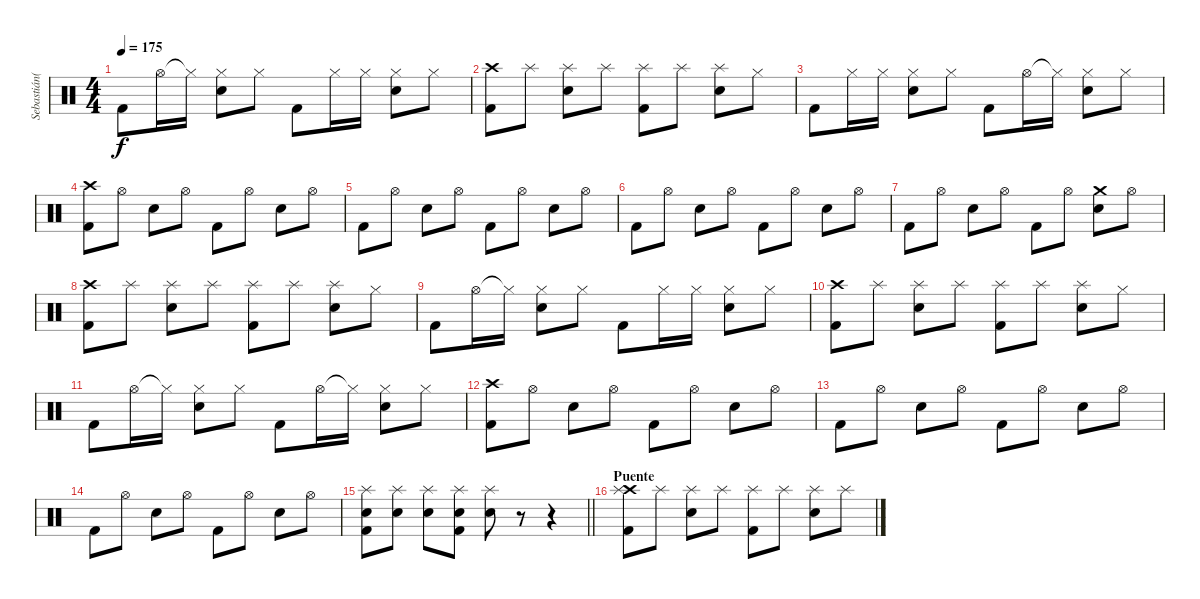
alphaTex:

\track ("Sebastián(Bateria)" "Sebastián(") {instrument percussion}
\staff {score}
\articulation defaults
\ts (4 4)
\tempo 175
\clef neutral
\ks c "Kick (hit) 2".8{dy f} "Hi-Hat (open)".16 "Hi-Hat (closed)"{t}.16
("Hi-Hat (closed)" "Snare (hit) 2").8 "Hi-Hat (closed)".8 "Kick (hit) 2".8 "Hi-Hat (closed)".16 "Hi-Hat (closed)".16 ("Hi-Hat (closed)" "Snare (hit) 2").8 "Hi-Hat (closed)".8 |
("Crash high (hit)" "Kick (hit) 2").8 "Splash (hit)".8 ("Splash (hit)" "Snare (hit) 2").8 "Splash (hit)".8 ("Splash (hit)" "Kick (hit) 2").8 "Splash (hit)".8 ("Splash (hit)" "Snare (hit) 2").8 "Hi-Hat (closed)".8 |
"Kick (hit) 2".8 "Hi-Hat (closed)".16 "Hi-Hat (closed)".16 ("Hi-Hat (closed)" "Snare (hit) 2").8 "Hi-Hat (closed)".8 "Kick (hit) 2".8 "Hi-Hat (open)".16 "Hi-Hat (closed)"{t}.16 ("Hi-Hat (closed)" "Snare (hit) 2").8 "Hi-Hat (closed)".8 |
("Crash high (hit)" "Kick (hit) 2").8 "Hi-Hat (open)".8 "Snare (hit) 2".8 "Hi-Hat (open)".8 "Kick (hit) 2".8 "Hi-Hat (open)".8 "Snare (hit) 2".8 "Hi-Hat (open)".8 |
"Kick (hit) 2".8 "Hi-Hat (open)".8 "Snare (hit) 2".8 "Hi-Hat (open)".8 "Kick (hit) 2".8 "Hi-Hat (open)".8 "Snare (hit) 2".8 "Hi-Hat (open)".8 |
"Kick (hit) 2".8 "Hi-Hat (open)".8 "Snare (hit) 2".8 "Hi-Hat (open)".8 "Kick (hit) 2".8 "Hi-Hat (open)".8 "Snare (hit) 2".8 "Hi-Hat (open)".8 |
"Kick (hit) 2".8 "Hi-Hat (open)".8 "Snare (hit) 2".8 "Hi-Hat (open)".8 "Kick (hit) 2".8 "Hi-Hat (open)".8 ("Crash medium (hit)" "Snare (hit) 2").8 "Hi-Hat (open)".8 |
("Crash high (hit)" "Kick (hit) 2").8 "Splash (hit)".8 ("Splash (hit)" "Snare (hit) 2").8 "Splash (hit)".8 ("Splash (hit)" "Kick (hit) 2").8 "Splash (hit)".8 ("Splash (hit)" "Snare (hit) 2").8 "Hi-Hat (closed)".8 |
"Kick (hit) 2".8 "Hi-Hat (open)".16 "Hi-Hat (closed)"{t}.16 ("Hi-Hat (closed)" "Snare (hit) 2").8 "Hi-Hat (closed)".8 "Kick (hit) 2".8 "Hi-Hat (closed)".16 "Hi-Hat (closed)".16 ("Hi-Hat (closed)" "Snare (hit) 2").8 "Hi-Hat (closed)".8 |
("Crash high (hit)" "Kick (hit) 2").8 "Splash (hit)".8 ("Splash (hit)" "Snare (hit) 2").8 "Splash (hit)".8 ("Splash (hit)" "Kick (hit) 2").8 "Splash (hit)".8 ("Splash (hit)" "Snare (hit) 2").8 "Hi-Hat (closed)".8 |
"Kick (hit) 2".8 "Hi-Hat (open)".16 "Hi-Hat (closed)"{t}.16 ("Hi-Hat (closed)" "Snare (hit) 2").8 "Hi-Hat (closed)".8 "Kick (hit) 2".8 "Hi-Hat (open)".16 "Hi-Hat (closed)"{t}.16 ("Hi-Hat (closed)" "Snare (hit) 2").8 "Hi-Hat (closed)".8 |
("Crash high (hit)" "Kick (hit) 2").8 "Hi-Hat (open)".8 "Snare (hit) 2".8 "Hi-Hat (open)".8 "Kick (hit) 2".8 "Hi-Hat (open)".8 "Snare (hit) 2".8 "Hi-Hat (open)".8 |
"Kick (hit) 2".8 "Hi-Hat (open)".8 "Snare (hit) 2".8 "Hi-Hat (open)".8 "Kick (hit) 2".8 "Hi-Hat (open)".8 "Snare (hit) 2".8 "Hi-Hat (open)".8 |
"Kick (hit) 2".8 "Hi-Hat (open)".8 "Snare (hit) 2".8 "Hi-Hat (open)".8 "Kick (hit) 2".8 "Hi-Hat (open)".8 "Snare (hit) 2".8 "Hi-Hat (open)".8 |
\barLineRight lightlight
("Splash (hit)" "Snare (hit) 2" "Kick (hit) 2").8 ("Splash (hit)" "Snare (hit) 2").8 ("Splash (hit)" "Snare (hit) 2").8 ("Splash (hit)" "Snare (hit) 2" "Kick (hit) 2").8 ("Splash (hit)" "Snare (hit) 2").8 r.8 r.4 |
\section ("" "Puente")
("Crash high (hit)" "Splash (hit)" "Kick (hit) 2").8 "Splash (hit)".8 ("Splash (hit)" "Snare (hit) 2").8 "Splash (hit)".8 ("Splash (hit)" "Kick (hit) 2").8 "Splash (hit)".8 ("Splash (hit)" "Snare (hit) 2").8 "Splash (hit)".8
